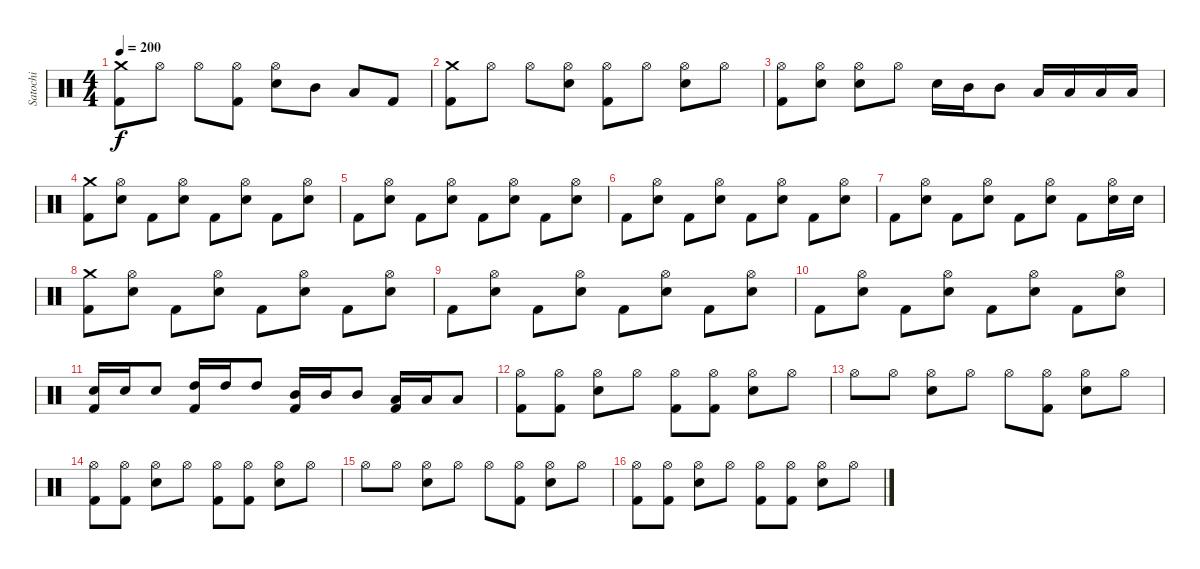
\track ("Satochi" "Satochi") {instrument percussion}
\staff {score}
\articulation defaults
\ts (4 4)
\tempo 200
\clef neutral
\ks c
("Crash medium (hit)" "Kick (hit) 2").8{dy f} "Hi-Hat (open)".8 "Hi-Hat (open)".8 ("Hi-Hat (open)" "Kick (hit) 2").8 ("Hi-Hat (open)" "Electric Snare (hit)").8 "Mid Tom (hit)".8 "Low Tom (hit)".8 "Kick (hit) 2".8 |
("Crash medium (hit)" "Kick (hit) 2").8 "Hi-Hat (open)".8 "Hi-Hat (open)".8 ("Hi-Hat (open)" "Electric Snare (hit)").8 ("Hi-Hat (open)" "Kick (hit) 2").8 "Hi-Hat (open)".8 ("Hi-Hat (open)" "Electric Snare (hit)").8 "Hi-Hat (open)".8 |
("Hi-Hat (open)" "Kick (hit) 2").8 ("Hi-Hat (open)" "Electric Snare (hit)").8 ("Hi-Hat (open)" "Electric Snare (hit)").8 "Hi-Hat (open)".8 "Electric Snare (hit)".16 "Mid Tom (hit)".16 "Mid Tom (hit)".8 "Low Tom (hit)".16 "Low Tom (hit)".16 "Low Tom (hit)".16 "Low Tom (hit)".16 |
("Crash medium (hit)" "Kick (hit) 2").8 ("Hi-Hat (open)" "Electric Snare (hit)").8 "Kick (hit) 2".8 ("Hi-Hat (open)" "Electric Snare (hit)").8 "Kick (hit) 2".8 ("Hi-Hat (open)" "Electric Snare (hit)").8 "Kick (hit) 2".8 ("Hi-Hat (open)" "Electric Snare (hit)").8 |
"Kick (hit) 2".8 ("Hi-Hat (open)" "Electric Snare (hit)").8 "Kick (hit) 2".8 ("Hi-Hat (open)" "Electric Snare (hit)").8 "Kick (hit) 2".8 ("Hi-Hat (open)" "Electric Snare (hit)").8 "Kick (hit) 2".8 ("Hi-Hat (open)" "Electric Snare (hit)").8 |
"Kick (hit) 2".8 ("Hi-Hat (open)" "Electric Snare (hit)").8 "Kick (hit) 2".8 ("Hi-Hat (open)" "Electric Snare (hit)").8 "Kick (hit) 2".8 ("Hi-Hat (open)" "Electric Snare (hit)").8 "Kick (hit) 2".8 ("Hi-Hat (open)" "Electric Snare (hit)").8 |
"Kick (hit) 2".8 ("Hi-Hat (open)" "Electric Snare (hit)").8 "Kick (hit) 2".8 ("Hi-Hat (open)" "Electric Snare (hit)").8 "Kick (hit) 2".8 ("Hi-Hat (open)" "Electric Snare (hit)").8 "Kick (hit) 2".8 ("Hi-Hat (open)" "Electric Snare (hit)").16 "Electric Snare (hit)".16 |
("Crash medium (hit)" "Kick (hit) 2").8 ("Hi-Hat (open)" "Electric Snare (hit)").8 "Kick (hit) 2".8 ("Hi-Hat (open)" "Electric Snare (hit)").8 "Kick (hit) 2".8 ("Hi-Hat (open)" "Electric Snare (hit)").8 "Kick (hit) 2".8 ("Hi-Hat (open)" "Electric Snare (hit)").8 |
"Kick (hit) 2".8 ("Hi-Hat (open)" "Electric Snare (hit)").8 "Kick (hit) 2".8 ("Hi-Hat (open)" "Electric Snare (hit)").8 "Kick (hit) 2".8 ("Hi-Hat (open)" "Electric Snare (hit)").8 "Kick (hit) 2".8 ("Hi-Hat (open)" "Electric Snare (hit)").8 |
"Kick (hit) 2".8 ("Hi-Hat (open)" "Electric Snare (hit)").8 "Kick (hit) 2".8 ("Hi-Hat (open)" "Electric Snare (hit)").8 "Kick (hit) 2".8 ("Hi-Hat (open)" "Electric Snare (hit)").8 "Kick (hit) 2".8 ("Hi-Hat (open)" "Electric Snare (hit)").8 |
("Electric Snare (hit)" "Kick (hit) 2").16 "Electric Snare (hit)".16 "Electric Snare (hit)".8 ("High Tom (hit)" "Kick (hit) 2").16 "High Tom (hit)".16 "High Tom (hit)".8 ("Mid Tom (hit)" "Kick (hit) 2").16 "Mid Tom (hit)".16 "Mid Tom (hit)".8 ("Low Tom (hit)" "Kick (hit) 2").16 "Low Tom (hit)".16 "Low Tom (hit)".8 |
("Hi-Hat (open)" "Kick (hit) 2").8 ("Hi-Hat (open)" "Kick (hit) 2").8 ("Hi-Hat (open)" "Electric Snare (hit)").8 "Hi-Hat (open)".8 ("Hi-Hat (open)" "Kick (hit) 2").8 ("Hi-Hat (open)" "Kick (hit) 2").8 ("Hi-Hat (open)" "Electric Snare (hit)").8 "Hi-Hat (open)".8 |
"Hi-Hat (open)".8 "Hi-Hat (open)".8 ("Hi-Hat (open)" "Electric Snare (hit)").8 "Hi-Hat (open)".8 "Hi-Hat (open)".8 ("Hi-Hat (open)" "Kick (hit) 2").8 ("Hi-Hat (open)" "Electric Snare (hit)").8 "Hi-Hat (open)".8 |
("Hi-Hat (open)" "Kick (hit) 2").8 ("Hi-Hat (open)" "Kick (hit) 2").8 ("Hi-Hat (open)" "Electric Snare (hit)").8 "Hi-Hat (open)".8 ("Hi-Hat (open)" "Kick (hit) 2").8 ("Hi-Hat (open)" "Kick (hit) 2").8 ("Hi-Hat (open)" "Electric Snare (hit)").8 "Hi-Hat (open)".8 |
"Hi-Hat (open)".8 "Hi-Hat (open)".8 ("Hi-Hat (open)" "Electric Snare (hit)").8 "Hi-Hat (open)".8 "Hi-Hat (open)".8 ("Hi-Hat (open)" "Kick (hit) 2").8 ("Hi-Hat (open)" "Electric Snare (hit)").8 "Hi-Hat (open)".8 |
("Hi-Hat (open)" "Kick (hit) 2").8 ("Hi-Hat (open)" "Kick (hit) 2").8 ("Hi-Hat (open)" "Electric Snare (hit)").8 "Hi-Hat (open)".8 ("Hi-Hat (open)" "Kick (hit) 2").8 ("Hi-Hat (open)" "Kick (hit) 2").8 ("Hi-Hat (open)" "Electric Snare (hit)").8 "Hi-Hat (open)".8
